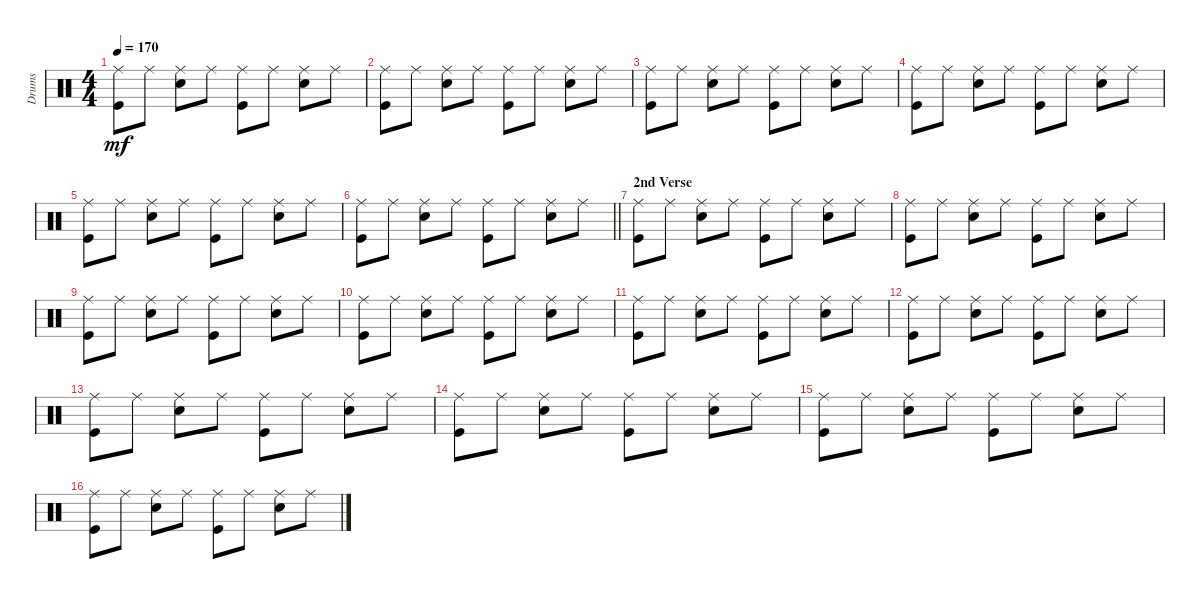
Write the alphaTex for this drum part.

\track ("Drums" "Drums") {instrument percussion}
\staff {score}
\articulation defaults
\ts (4 4)
\tempo 170
\clef neutral
\ks c
("Ride (middle)" "Kick (hit)").8{dy mf} "Ride (middle)".8 ("Ride (middle)" "Snare (hit) 2").8 "Ride (middle)".8 ("Ride (middle)" "Kick (hit)").8 "Ride (middle)".8 ("Ride (middle)" "Snare (hit) 2").8 "Ride (middle)".8 |
("Ride (middle)" "Kick (hit)").8 "Ride (middle)".8 ("Ride (middle)" "Snare (hit) 2").8 "Ride (middle)".8 ("Ride (middle)" "Kick (hit)").8 "Ride (middle)".8 ("Ride (middle)" "Snare (hit) 2").8 "Ride (middle)".8 |
("Ride (middle)" "Kick (hit)").8 "Ride (middle)".8 ("Ride (middle)" "Snare (hit) 2").8 "Ride (middle)".8 ("Ride (middle)" "Kick (hit)").8 "Ride (middle)".8 ("Ride (middle)" "Snare (hit) 2").8 "Ride (middle)".8 |
("Ride (middle)" "Kick (hit)").8 "Ride (middle)".8 ("Ride (middle)" "Snare (hit) 2").8 "Ride (middle)".8 ("Ride (middle)" "Kick (hit)").8 "Ride (middle)".8 ("Ride (middle)" "Snare (hit) 2").8 "Ride (middle)".8 |
("Ride (middle)" "Kick (hit)").8 "Ride (middle)".8 ("Ride (middle)" "Snare (hit) 2").8 "Ride (middle)".8 ("Ride (middle)" "Kick (hit)").8 "Ride (middle)".8 ("Ride (middle)" "Snare (hit) 2").8 "Ride (middle)".8 |
\barLineRight lightlight
("Ride (middle)" "Kick (hit)").8 "Ride (middle)".8 ("Ride (middle)" "Snare (hit) 2").8 "Ride (middle)".8 ("Ride (middle)" "Kick (hit)").8 "Ride (middle)".8 ("Ride (middle)" "Snare (hit) 2").8 "Ride (middle)".8 |
\section ("" "2nd Verse")
("Ride (middle)" "Kick (hit)").8 "Ride (middle)".8 ("Ride (middle)" "Snare (hit) 2").8 "Ride (middle)".8 ("Ride (middle)" "Kick (hit)").8 "Ride (middle)".8 ("Ride (middle)" "Snare (hit) 2").8 "Ride (middle)".8 |
("Ride (middle)" "Kick (hit)").8 "Ride (middle)".8 ("Ride (middle)" "Snare (hit) 2").8 "Ride (middle)".8 ("Ride (middle)" "Kick (hit)").8 "Ride (middle)".8 ("Ride (middle)" "Snare (hit) 2").8 "Ride (middle)".8 |
("Ride (middle)" "Kick (hit)").8 "Ride (middle)".8 ("Ride (middle)" "Snare (hit) 2").8 "Ride (middle)".8 ("Ride (middle)" "Kick (hit)").8 "Ride (middle)".8 ("Ride (middle)" "Snare (hit) 2").8 "Ride (middle)".8 |
("Ride (middle)" "Kick (hit)").8 "Ride (middle)".8 ("Ride (middle)" "Snare (hit) 2").8 "Ride (middle)".8 ("Ride (middle)" "Kick (hit)").8 "Ride (middle)".8 ("Ride (middle)" "Snare (hit) 2").8 "Ride (middle)".8 |
("Ride (middle)" "Kick (hit)").8 "Ride (middle)".8 ("Ride (middle)" "Snare (hit) 2").8 "Ride (middle)".8 ("Ride (middle)" "Kick (hit)").8 "Ride (middle)".8 ("Ride (middle)" "Snare (hit) 2").8 "Ride (middle)".8 |
("Ride (middle)" "Kick (hit)").8 "Ride (middle)".8 ("Ride (middle)" "Snare (hit) 2").8 "Ride (middle)".8 ("Ride (middle)" "Kick (hit)").8 "Ride (middle)".8 ("Ride (middle)" "Snare (hit) 2").8 "Ride (middle)".8 |
("Ride (middle)" "Kick (hit)").8 "Ride (middle)".8 ("Ride (middle)" "Snare (hit) 2").8 "Ride (middle)".8 ("Ride (middle)" "Kick (hit)").8 "Ride (middle)".8 ("Ride (middle)" "Snare (hit) 2").8 "Ride (middle)".8 |
("Ride (middle)" "Kick (hit)").8 "Ride (middle)".8 ("Ride (middle)" "Snare (hit) 2").8 "Ride (middle)".8 ("Ride (middle)" "Kick (hit)").8 "Ride (middle)".8 ("Ride (middle)" "Snare (hit) 2").8 "Ride (middle)".8 |
("Ride (middle)" "Kick (hit)").8 "Ride (middle)".8 ("Ride (middle)" "Snare (hit) 2").8 "Ride (middle)".8 ("Ride (middle)" "Kick (hit)").8 "Ride (middle)".8 ("Ride (middle)" "Snare (hit) 2").8 "Ride (middle)".8 |
("Ride (middle)" "Kick (hit)").8 "Ride (middle)".8 ("Ride (middle)" "Snare (hit) 2").8 "Ride (middle)".8 ("Ride (middle)" "Kick (hit)").8 "Ride (middle)".8 ("Ride (middle)" "Snare (hit) 2").8 "Ride (middle)".8
